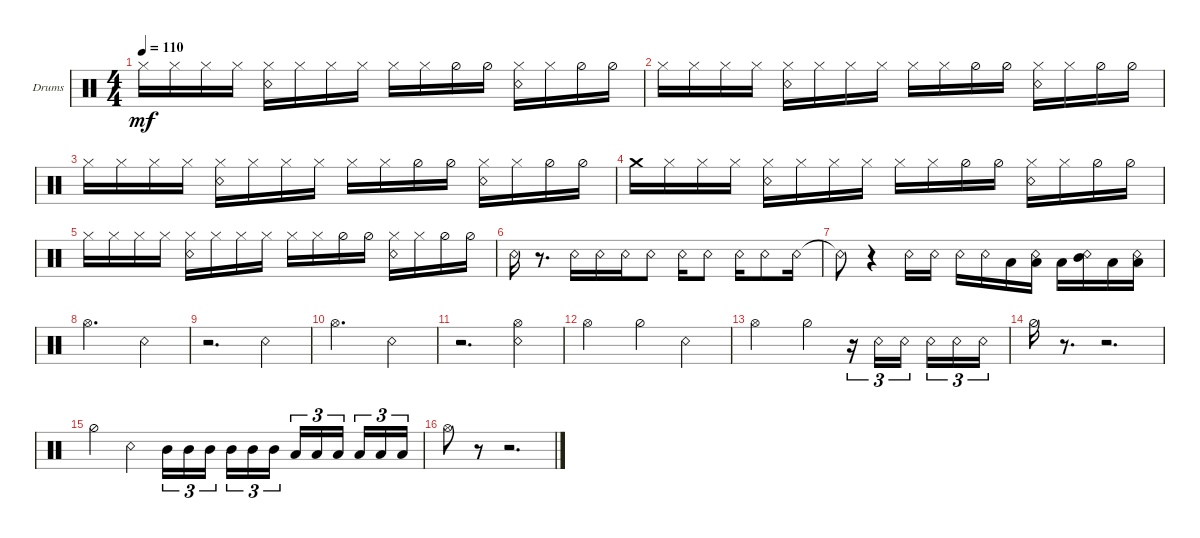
\defaultSystemsLayout 4
\bracketExtendMode nobrackets
\firstSystemTrackNameOrientation horizontal
\otherSystemsTrackNameOrientation horizontal
\track ("Ударные" "Drums") {instrument percussion}
\staff {score}
\articulation defaults
\ts (4 4)
\tempo 110
\clef neutral
\ks c "Hi-Hat (closed)".16{dy mf} "Hi-Hat (closed)".16 "Hi-Hat (closed)".16 "Hi-Hat (closed)".16
("Hi-Hat (closed)" "Snare (rim shot)").16 "Hi-Hat (closed)".16 "Hi-Hat (closed)".16 "Hi-Hat (closed)".16 "Hi-Hat (closed)".16 "Hi-Hat (closed)".16 "Hi-Hat (half)".16 "Hi-Hat (half)".16 ("Hi-Hat (closed)" "Snare (rim shot)").16 "Hi-Hat (closed)".16 "Hi-Hat (half)".16 "Hi-Hat (half)".16 |
"Hi-Hat (closed)".16 "Hi-Hat (closed)".16 "Hi-Hat (closed)".16 "Hi-Hat (closed)".16 ("Hi-Hat (closed)" "Snare (rim shot)").16 "Hi-Hat (closed)".16 "Hi-Hat (closed)".16 "Hi-Hat (closed)".16 "Hi-Hat (closed)".16 "Hi-Hat (closed)".16 "Hi-Hat (half)".16 "Hi-Hat (half)".16 ("Hi-Hat (closed)" "Snare (rim shot)").16 "Hi-Hat (closed)".16 "Hi-Hat (half)".16 "Hi-Hat (half)".16 |
"Hi-Hat (closed)".16 "Hi-Hat (closed)".16 "Hi-Hat (closed)".16 "Hi-Hat (closed)".16 ("Hi-Hat (closed)" "Snare (rim shot)").16 "Hi-Hat (closed)".16 "Hi-Hat (closed)".16 "Hi-Hat (closed)".16 "Hi-Hat (closed)".16 "Hi-Hat (closed)".16 "Hi-Hat (half)".16 "Hi-Hat (half)".16 ("Hi-Hat (closed)" "Snare (rim shot)").16 "Hi-Hat (closed)".16 "Hi-Hat (half)".16 "Hi-Hat (half)".16 |
"Crash medium (hit)".16 "Hi-Hat (closed)".16 "Hi-Hat (closed)".16 "Hi-Hat (closed)".16 ("Hi-Hat (closed)" "Snare (rim shot)").16 "Hi-Hat (closed)".16 "Hi-Hat (closed)".16 "Hi-Hat (closed)".16 "Hi-Hat (closed)".16 "Hi-Hat (closed)".16 "Hi-Hat (half)".16 "Hi-Hat (half)".16 ("Hi-Hat (closed)" "Snare (rim shot)").16 "Hi-Hat (closed)".16 "Hi-Hat (half)".16 "Hi-Hat (half)".16 |
"Hi-Hat (closed)".16 "Hi-Hat (closed)".16 "Hi-Hat (closed)".16 "Hi-Hat (closed)".16 ("Hi-Hat (closed)" "Snare (rim shot)").16 "Hi-Hat (closed)".16 "Hi-Hat (closed)".16 "Hi-Hat (closed)".16 "Hi-Hat (closed)".16 "Hi-Hat (closed)".16 "Hi-Hat (half)".16 "Hi-Hat (half)".16 ("Hi-Hat (closed)" "Snare (rim shot)").16 "Hi-Hat (closed)".16 "Hi-Hat (half)".16 "Hi-Hat (half)".16 |
"Snare (rim shot)".16 r.8{d} "Snare (rim shot)".16 "Snare (rim shot)".16 "Snare (rim shot)".16 "Snare (rim shot)".8 "Snare (rim shot)".16 "Snare (rim shot)".8 "Snare (rim shot)".16 "Snare (rim shot)".8 "Snare (rim shot)".16 |
"Snare (rim shot)"{t}.8 r.4 "Snare (rim shot)".16 "Snare (rim shot)".16 "Snare (rim shot)".16 "Snare (rim shot)".16 "Low Tom (hit)".16 ("Low Tom (hit)" "Snare (rim shot)").16 "Low Tom (hit)".16 ("Mid Tom (hit)" "Snare (rim shot)").16 "Low Tom (hit)".16 ("Low Tom (hit)" "Snare (rim shot)").16 |
"Hi-Hat (open)".2{d} "Snare (rim shot)".4 |
r.2{d} "Snare (rim shot)".4 |
"Hi-Hat (open)".2{d} "Snare (rim shot)".4 |
r.2{d} ("Snare (rim shot)" "Hi-Hat (open)").4 |
"Hi-Hat (open)".2 "Hi-Hat (half)".4 "Snare (rim shot)".4 |
"Hi-Hat (open)".2 "Hi-Hat (half)".4 r.16{tu (3 2)} "Snare (rim shot)".16{tu (3 2)} "Snare (rim shot)".16{tu (3 2)} "Snare (rim shot)".16{tu (3 2)} "Snare (rim shot)".16{tu (3 2)} "Snare (rim shot)".16{tu (3 2)} |
"Hi-Hat (half)".16 r.8{d} r.2{d} |
"Hi-Hat (half)".4 "Snare (rim shot)".4 "Mid Tom (hit)".16{tu (3 2)} "Mid Tom (hit)".16{tu (3 2)} "Mid Tom (hit)".16{tu (3 2)} "Mid Tom (hit)".16{tu (3 2)} "Mid Tom (hit)".16{tu (3 2)} "Mid Tom (hit)".16{tu (3 2)} "Low Tom (hit)".16{tu (3 2)} "Low Tom (hit)".16{tu (3 2)} "Low Tom (hit)".16{tu (3 2)} "Low Tom (hit)".16{tu (3 2)} "Low Tom (hit)".16{tu (3 2)} "Low Tom (hit)".16{tu (3 2)} |
"Hi-Hat (open)".8 r.8 r.2{d}
